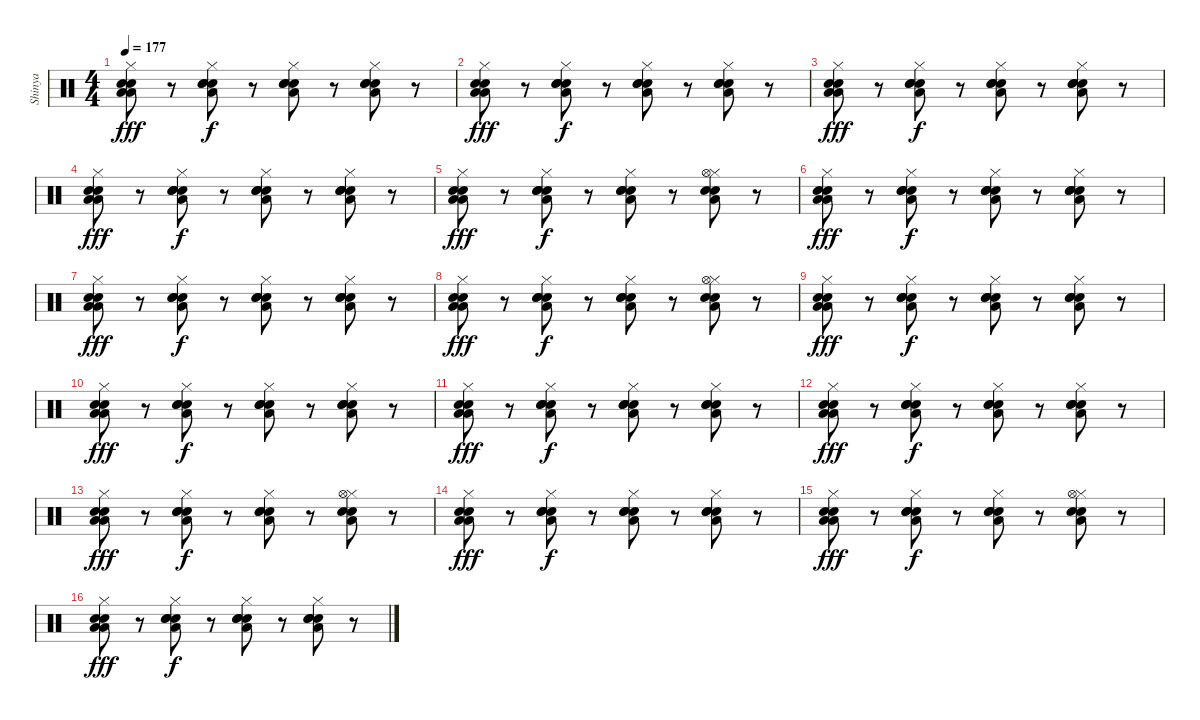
\track ("Shinya " "Shinya ") {instrument percussion}
\staff {score}
\articulation defaults
\ts (4 4)
\tempo 177
\clef neutral
\ks c
("Hi-Hat (closed)" "Electric Snare (hit)" "Low Tom (hit)" "Electric Snare (hit)" "Low Tom (hit)").8{dy fff} r.8 ("Hi-Hat (closed)" "Electric Snare (hit)" "Low Tom (hit)" "Electric Snare (hit)" "Snare (hit) 2").8{dy f} r.8 ("Hi-Hat (closed)" "Electric Snare (hit)" "Electric Snare (hit)" "Snare (hit) 2" "Low Tom (hit)").8 r.8 ("Hi-Hat (closed)" "Electric Snare (hit)" "Electric Snare (hit)" "Electric Snare (hit)" "Low Tom (hit)").8 r.8 |
("Hi-Hat (closed)" "Electric Snare (hit)" "Low Tom (hit)" "Electric Snare (hit)" "Low Tom (hit)").8{dy fff} r.8 ("Hi-Hat (closed)" "Electric Snare (hit)" "Low Tom (hit)" "Electric Snare (hit)" "Snare (hit) 2").8{dy f} r.8 ("Hi-Hat (closed)" "Electric Snare (hit)" "Electric Snare (hit)" "Snare (hit) 2" "Low Tom (hit)").8 r.8 ("Hi-Hat (closed)" "Electric Snare (hit)" "Electric Snare (hit)" "Low Tom (hit)" "Electric Snare (hit)").8 r.8 |
("Hi-Hat (closed)" "Electric Snare (hit)" "Low Tom (hit)" "Electric Snare (hit)" "Low Tom (hit)").8{dy fff} r.8 ("Hi-Hat (closed)" "Electric Snare (hit)" "Low Tom (hit)" "Electric Snare (hit)" "Snare (hit) 2").8{dy f} r.8 ("Hi-Hat (closed)" "Electric Snare (hit)" "Electric Snare (hit)" "Snare (hit) 2" "Low Tom (hit)").8 r.8 ("Hi-Hat (closed)" "Electric Snare (hit)" "Electric Snare (hit)" "Electric Snare (hit)" "Low Tom (hit)").8 r.8 |
("Hi-Hat (closed)" "Electric Snare (hit)" "Low Tom (hit)" "Electric Snare (hit)" "Low Tom (hit)").8{dy fff} r.8 ("Hi-Hat (closed)" "Electric Snare (hit)" "Low Tom (hit)" "Electric Snare (hit)" "Snare (hit) 2").8{dy f} r.8 ("Hi-Hat (closed)" "Electric Snare (hit)" "Electric Snare (hit)" "Snare (hit) 2" "Low Tom (hit)").8 r.8 ("Hi-Hat (closed)" "Electric Snare (hit)" "Electric Snare (hit)" "Low Tom (hit)" "Electric Snare (hit)").8 r.8 |
("Hi-Hat (closed)" "Electric Snare (hit)" "Low Tom (hit)" "Electric Snare (hit)" "Low Tom (hit)").8{dy fff} r.8 ("Hi-Hat (closed)" "Electric Snare (hit)" "Low Tom (hit)" "Electric Snare (hit)" "Snare (hit) 2").8{dy f} r.8 ("Hi-Hat (closed)" "Electric Snare (hit)" "Electric Snare (hit)" "Snare (hit) 2" "Low Tom (hit)").8 r.8 ("Hi-Hat (closed)" "Hi-Hat (open)" "Electric Snare (hit)" "Electric Snare (hit)" "Low Tom (hit)").8 r.8 |
("Hi-Hat (closed)" "Electric Snare (hit)" "Low Tom (hit)" "Electric Snare (hit)" "Low Tom (hit)").8{dy fff} r.8 ("Hi-Hat (closed)" "Electric Snare (hit)" "Low Tom (hit)" "Electric Snare (hit)" "Snare (hit) 2").8{dy f} r.8 ("Hi-Hat (closed)" "Electric Snare (hit)" "Electric Snare (hit)" "Snare (hit) 2" "Low Tom (hit)").8 r.8 ("Hi-Hat (closed)" "Electric Snare (hit)" "Electric Snare (hit)" "Electric Snare (hit)" "Low Tom (hit)").8 r.8 |
("Hi-Hat (closed)" "Electric Snare (hit)" "Low Tom (hit)" "Electric Snare (hit)" "Low Tom (hit)").8{dy fff} r.8 ("Hi-Hat (closed)" "Electric Snare (hit)" "Low Tom (hit)" "Electric Snare (hit)" "Snare (hit) 2").8{dy f} r.8 ("Hi-Hat (closed)" "Electric Snare (hit)" "Electric Snare (hit)" "Snare (hit) 2" "Low Tom (hit)").8 r.8 ("Hi-Hat (closed)" "Electric Snare (hit)" "Electric Snare (hit)" "Low Tom (hit)" "Electric Snare (hit)").8 r.8 |
("Hi-Hat (closed)" "Electric Snare (hit)" "Low Tom (hit)" "Electric Snare (hit)" "Low Tom (hit)").8{dy fff} r.8 ("Hi-Hat (closed)" "Electric Snare (hit)" "Low Tom (hit)" "Electric Snare (hit)" "Snare (hit) 2").8{dy f} r.8 ("Hi-Hat (closed)" "Electric Snare (hit)" "Electric Snare (hit)" "Snare (hit) 2" "Low Tom (hit)").8 r.8 ("Hi-Hat (closed)" "Hi-Hat (open)" "Electric Snare (hit)" "Electric Snare (hit)" "Low Tom (hit)").8 r.8 |
("Hi-Hat (closed)" "Electric Snare (hit)" "Low Tom (hit)" "Electric Snare (hit)" "Low Tom (hit)").8{dy fff} r.8 ("Hi-Hat (closed)" "Electric Snare (hit)" "Low Tom (hit)" "Electric Snare (hit)" "Snare (hit) 2").8{dy f} r.8 ("Hi-Hat (closed)" "Electric Snare (hit)" "Electric Snare (hit)" "Snare (hit) 2" "Low Tom (hit)").8 r.8 ("Hi-Hat (closed)" "Electric Snare (hit)" "Electric Snare (hit)" "Electric Snare (hit)" "Low Tom (hit)").8 r.8 |
("Hi-Hat (closed)" "Electric Snare (hit)" "Low Tom (hit)" "Electric Snare (hit)" "Low Tom (hit)").8{dy fff} r.8 ("Hi-Hat (closed)" "Electric Snare (hit)" "Low Tom (hit)" "Electric Snare (hit)" "Snare (hit) 2").8{dy f} r.8 ("Hi-Hat (closed)" "Electric Snare (hit)" "Electric Snare (hit)" "Snare (hit) 2" "Low Tom (hit)").8 r.8 ("Hi-Hat (closed)" "Electric Snare (hit)" "Electric Snare (hit)" "Low Tom (hit)" "Electric Snare (hit)").8 r.8 |
("Hi-Hat (closed)" "Electric Snare (hit)" "Low Tom (hit)" "Electric Snare (hit)" "Low Tom (hit)").8{dy fff} r.8 ("Hi-Hat (closed)" "Electric Snare (hit)" "Low Tom (hit)" "Electric Snare (hit)" "Snare (hit) 2").8{dy f} r.8 ("Hi-Hat (closed)" "Electric Snare (hit)" "Electric Snare (hit)" "Snare (hit) 2" "Low Tom (hit)").8 r.8 ("Hi-Hat (closed)" "Electric Snare (hit)" "Electric Snare (hit)" "Electric Snare (hit)" "Low Tom (hit)").8 r.8 |
("Hi-Hat (closed)" "Electric Snare (hit)" "Low Tom (hit)" "Electric Snare (hit)" "Low Tom (hit)").8{dy fff} r.8 ("Hi-Hat (closed)" "Electric Snare (hit)" "Low Tom (hit)" "Electric Snare (hit)" "Snare (hit) 2").8{dy f} r.8 ("Hi-Hat (closed)" "Electric Snare (hit)" "Electric Snare (hit)" "Snare (hit) 2" "Low Tom (hit)").8 r.8 ("Hi-Hat (closed)" "Electric Snare (hit)" "Electric Snare (hit)" "Low Tom (hit)" "Electric Snare (hit)").8 r.8 |
("Hi-Hat (closed)" "Electric Snare (hit)" "Low Tom (hit)" "Electric Snare (hit)" "Low Tom (hit)").8{dy fff} r.8 ("Hi-Hat (closed)" "Electric Snare (hit)" "Low Tom (hit)" "Electric Snare (hit)" "Snare (hit) 2").8{dy f} r.8 ("Hi-Hat (closed)" "Electric Snare (hit)" "Electric Snare (hit)" "Snare (hit) 2" "Low Tom (hit)").8 r.8 ("Hi-Hat (closed)" "Hi-Hat (open)" "Electric Snare (hit)" "Electric Snare (hit)" "Low Tom (hit)").8 r.8 |
("Hi-Hat (closed)" "Electric Snare (hit)" "Low Tom (hit)" "Electric Snare (hit)" "Low Tom (hit)").8{dy fff} r.8 ("Hi-Hat (closed)" "Electric Snare (hit)" "Low Tom (hit)" "Electric Snare (hit)" "Snare (hit) 2").8{dy f} r.8 ("Hi-Hat (closed)" "Electric Snare (hit)" "Electric Snare (hit)" "Snare (hit) 2" "Low Tom (hit)").8 r.8 ("Hi-Hat (closed)" "Electric Snare (hit)" "Electric Snare (hit)" "Electric Snare (hit)" "Low Tom (hit)").8 r.8 |
("Hi-Hat (closed)" "Electric Snare (hit)" "Low Tom (hit)" "Electric Snare (hit)" "Low Tom (hit)").8{dy fff} r.8 ("Hi-Hat (closed)" "Electric Snare (hit)" "Low Tom (hit)" "Electric Snare (hit)" "Snare (hit) 2").8{dy f} r.8 ("Hi-Hat (closed)" "Electric Snare (hit)" "Electric Snare (hit)" "Snare (hit) 2" "Low Tom (hit)").8 r.8 ("Hi-Hat (closed)" "Hi-Hat (open)" "Electric Snare (hit)" "Electric Snare (hit)" "Low Tom (hit)").8 r.8 |
("Hi-Hat (closed)" "Electric Snare (hit)" "Low Tom (hit)" "Electric Snare (hit)" "Low Tom (hit)").8{dy fff} r.8 ("Hi-Hat (closed)" "Electric Snare (hit)" "Low Tom (hit)" "Electric Snare (hit)" "Snare (hit) 2").8{dy f} r.8 ("Hi-Hat (closed)" "Electric Snare (hit)" "Electric Snare (hit)" "Snare (hit) 2" "Low Tom (hit)").8 r.8 ("Hi-Hat (closed)" "Electric Snare (hit)" "Electric Snare (hit)" "Electric Snare (hit)" "Low Tom (hit)").8 r.8
